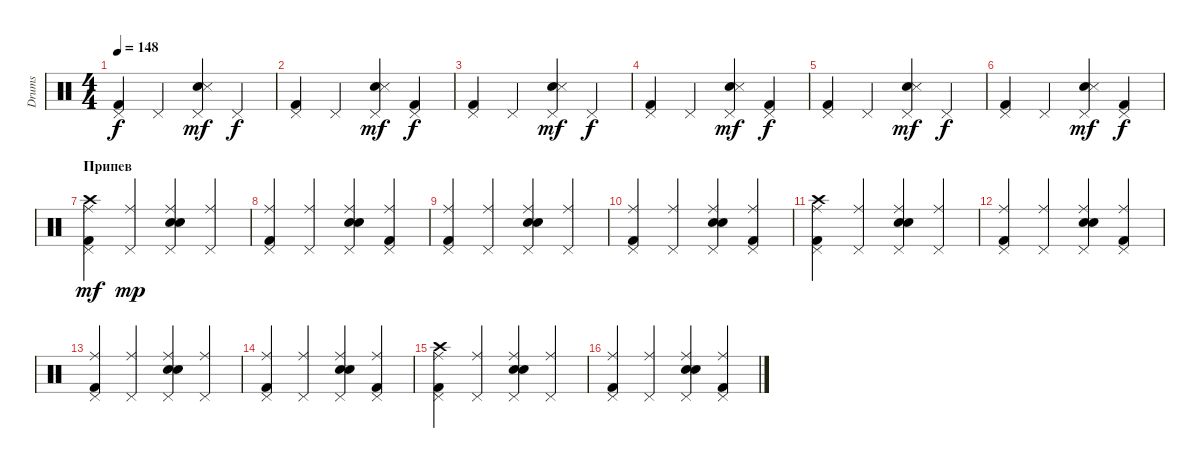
\track ("Drums" "Drums") {instrument percussion}
\staff {score}
\articulation defaults
\ts (4 4)
\tempo 148
\clef neutral
\ks c
("Pedal Hi-Hat (hit)" "Kick (hit) 2").4{dy f} "Pedal Hi-Hat (hit)".4 ("Pedal Hi-Hat (hit)" "Snare (hit) 2" "Snare (side stick) 3").4{dy mf} "Pedal Hi-Hat (hit)".4{dy f} |
("Pedal Hi-Hat (hit)" "Kick (hit) 2").4 "Pedal Hi-Hat (hit)".4 ("Pedal Hi-Hat (hit)" "Snare (hit) 2" "Snare (side stick) 3").4{dy mf} ("Pedal Hi-Hat (hit)" "Kick (hit) 2").4{dy f} |
("Pedal Hi-Hat (hit)" "Kick (hit) 2").4 "Pedal Hi-Hat (hit)".4 ("Pedal Hi-Hat (hit)" "Snare (hit) 2" "Snare (side stick) 3").4{dy mf} "Pedal Hi-Hat (hit)".4{dy f} |
("Pedal Hi-Hat (hit)" "Kick (hit) 2").4 "Pedal Hi-Hat (hit)".4 ("Pedal Hi-Hat (hit)" "Snare (hit) 2" "Snare (side stick) 3").4{dy mf} ("Pedal Hi-Hat (hit)" "Kick (hit) 2").4{dy f} |
("Pedal Hi-Hat (hit)" "Kick (hit) 2").4 "Pedal Hi-Hat (hit)".4 ("Pedal Hi-Hat (hit)" "Snare (hit) 2" "Snare (side stick) 3").4{dy mf} "Pedal Hi-Hat (hit)".4{dy f} |
("Pedal Hi-Hat (hit)" "Kick (hit) 2").4 "Pedal Hi-Hat (hit)".4 ("Pedal Hi-Hat (hit)" "Snare (hit) 2" "Snare (side stick) 3").4{dy mf} ("Pedal Hi-Hat (hit)" "Kick (hit) 2").4{dy f} |
\section ("" "Припев")
("Pedal Hi-Hat (hit)" "Kick (hit) 2" "Ride (middle)" "Crash high (hit)").4{dy mf} ("Pedal Hi-Hat (hit)" "Ride (middle)").4{dy mp} ("Pedal Hi-Hat (hit)" "Snare (hit) 2" "Electric Snare (hit)" "Ride (middle)").4 ("Pedal Hi-Hat (hit)" "Ride (middle)").4 |
("Pedal Hi-Hat (hit)" "Kick (hit) 2" "Ride (middle)").4 ("Pedal Hi-Hat (hit)" "Ride (middle)").4 ("Pedal Hi-Hat (hit)" "Snare (hit) 2" "Electric Snare (hit)" "Ride (middle)").4 ("Pedal Hi-Hat (hit)" "Kick (hit) 2" "Ride (middle)").4 |
("Pedal Hi-Hat (hit)" "Kick (hit) 2" "Ride (middle)").4 ("Pedal Hi-Hat (hit)" "Ride (middle)").4 ("Pedal Hi-Hat (hit)" "Snare (hit) 2" "Electric Snare (hit)" "Ride (middle)").4 ("Pedal Hi-Hat (hit)" "Ride (middle)").4 |
("Pedal Hi-Hat (hit)" "Kick (hit) 2" "Ride (middle)").4 ("Pedal Hi-Hat (hit)" "Ride (middle)").4 ("Pedal Hi-Hat (hit)" "Snare (hit) 2" "Electric Snare (hit)" "Ride (middle)").4 ("Pedal Hi-Hat (hit)" "Kick (hit) 2" "Ride (middle)").4 |
("Pedal Hi-Hat (hit)" "Kick (hit) 2" "Ride (middle)" "Crash high (hit)").4 ("Pedal Hi-Hat (hit)" "Ride (middle)").4 ("Pedal Hi-Hat (hit)" "Snare (hit) 2" "Electric Snare (hit)" "Ride (middle)").4 ("Pedal Hi-Hat (hit)" "Ride (middle)").4 |
("Pedal Hi-Hat (hit)" "Kick (hit) 2" "Ride (middle)").4 ("Pedal Hi-Hat (hit)" "Ride (middle)").4 ("Pedal Hi-Hat (hit)" "Snare (hit) 2" "Electric Snare (hit)" "Ride (middle)").4 ("Pedal Hi-Hat (hit)" "Kick (hit) 2" "Ride (middle)").4 |
("Pedal Hi-Hat (hit)" "Kick (hit) 2" "Ride (middle)").4 ("Pedal Hi-Hat (hit)" "Ride (middle)").4 ("Pedal Hi-Hat (hit)" "Snare (hit) 2" "Electric Snare (hit)" "Ride (middle)").4 ("Pedal Hi-Hat (hit)" "Ride (middle)").4 |
("Pedal Hi-Hat (hit)" "Kick (hit) 2" "Ride (middle)").4 ("Pedal Hi-Hat (hit)" "Ride (middle)").4 ("Pedal Hi-Hat (hit)" "Snare (hit) 2" "Electric Snare (hit)" "Ride (middle)").4 ("Pedal Hi-Hat (hit)" "Kick (hit) 2" "Ride (middle)").4 |
("Pedal Hi-Hat (hit)" "Kick (hit) 2" "Ride (middle)" "Crash high (hit)").4 ("Pedal Hi-Hat (hit)" "Ride (middle)").4 ("Pedal Hi-Hat (hit)" "Snare (hit) 2" "Electric Snare (hit)" "Ride (middle)").4 ("Pedal Hi-Hat (hit)" "Ride (middle)").4 |
("Pedal Hi-Hat (hit)" "Kick (hit) 2" "Ride (middle)").4 ("Pedal Hi-Hat (hit)" "Ride (middle)").4 ("Pedal Hi-Hat (hit)" "Snare (hit) 2" "Electric Snare (hit)" "Ride (middle)").4 ("Pedal Hi-Hat (hit)" "Kick (hit) 2" "Ride (middle)").4
